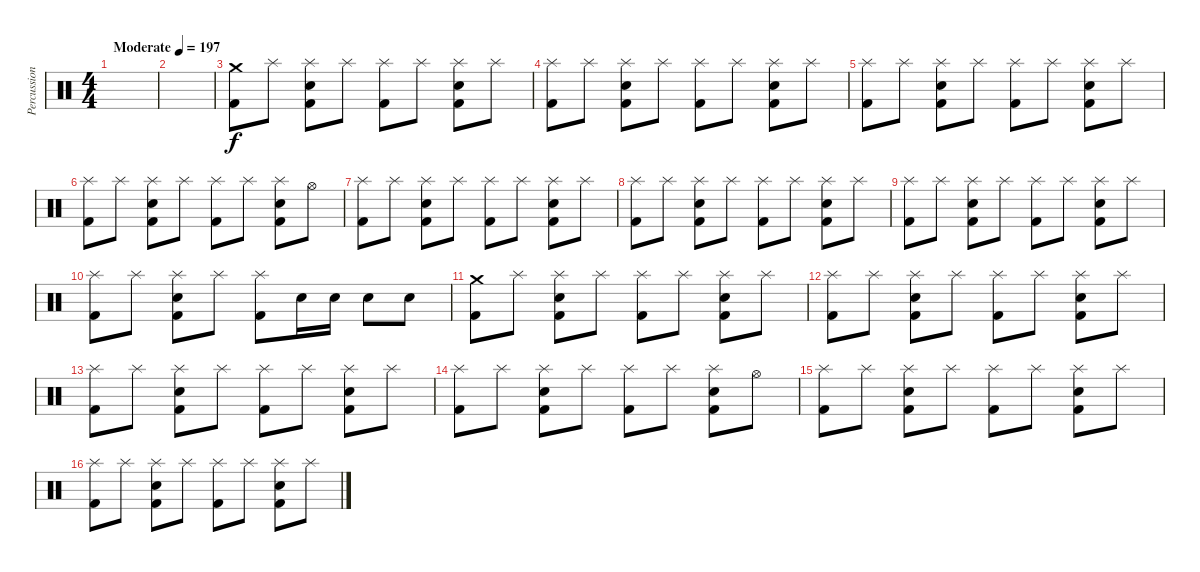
\track ("Percussion" "Percussion") {instrument percussion}
\staff {score}
\articulation defaults
\ts (4 4)
\tempo (197 "Moderate")
\clef neutral
\ks c
|
|
("Crash medium (hit)" "Kick (hit) 2").8 "Splash (hit)".8 ("Snare (hit) 2" "Splash (hit)" "Kick (hit) 2").8 "Splash (hit)".8 ("Splash (hit)" "Kick (hit) 2").8 "Splash (hit)".8 ("Snare (hit) 2" "Splash (hit)" "Kick (hit) 2").8 "Splash (hit)".8 |
("Splash (hit)" "Kick (hit) 2").8 "Splash (hit)".8 ("Snare (hit) 2" "Splash (hit)" "Kick (hit) 2").8 "Splash (hit)".8 ("Splash (hit)" "Kick (hit) 2").8 "Splash (hit)".8 ("Snare (hit) 2" "Splash (hit)" "Kick (hit) 2").8 "Splash (hit)".8 |
("Splash (hit)" "Kick (hit) 2").8 "Splash (hit)".8 ("Snare (hit) 2" "Splash (hit)" "Kick (hit) 2").8 "Splash (hit)".8 ("Splash (hit)" "Kick (hit) 2").8 "Splash (hit)".8 ("Snare (hit) 2" "Splash (hit)" "Kick (hit) 2").8 "Splash (hit)".8 |
("Splash (hit)" "Kick (hit) 2").8 "Splash (hit)".8 ("Snare (hit) 2" "Splash (hit)" "Kick (hit) 2").8 "Splash (hit)".8 ("Splash (hit)" "Kick (hit) 2").8 "Splash (hit)".8 ("Snare (hit) 2" "Splash (hit)" "Kick (hit) 2").8 "Hi-Hat (open)".8 |
("Splash (hit)" "Kick (hit) 2").8 "Splash (hit)".8 ("Snare (hit) 2" "Splash (hit)" "Kick (hit) 2").8 "Splash (hit)".8 ("Splash (hit)" "Kick (hit) 2").8 "Splash (hit)".8 ("Snare (hit) 2" "Splash (hit)" "Kick (hit) 2").8 "Splash (hit)".8 |
("Splash (hit)" "Kick (hit) 2").8 "Splash (hit)".8 ("Snare (hit) 2" "Splash (hit)" "Kick (hit) 2").8 "Splash (hit)".8 ("Splash (hit)" "Kick (hit) 2").8 "Splash (hit)".8 ("Snare (hit) 2" "Splash (hit)" "Kick (hit) 2").8 "Splash (hit)".8 |
("Splash (hit)" "Kick (hit) 2").8 "Splash (hit)".8 ("Snare (hit) 2" "Splash (hit)" "Kick (hit) 2").8 "Splash (hit)".8 ("Splash (hit)" "Kick (hit) 2").8 "Splash (hit)".8 ("Snare (hit) 2" "Splash (hit)" "Kick (hit) 2").8 "Splash (hit)".8 |
("Splash (hit)" "Kick (hit) 2").8 "Splash (hit)".8 ("Snare (hit) 2" "Splash (hit)" "Kick (hit) 2").8 "Splash (hit)".8 ("Splash (hit)" "Kick (hit) 2").8 "Snare (hit) 2".16 "Snare (hit) 2".16 "Snare (hit) 2".8 "Snare (hit) 2".8 |
("Crash medium (hit)" "Kick (hit) 2").8 "Splash (hit)".8 ("Snare (hit) 2" "Splash (hit)" "Kick (hit) 2").8 "Splash (hit)".8 ("Splash (hit)" "Kick (hit) 2").8 "Splash (hit)".8 ("Snare (hit) 2" "Splash (hit)" "Kick (hit) 2").8 "Splash (hit)".8 |
("Splash (hit)" "Kick (hit) 2").8 "Splash (hit)".8 ("Snare (hit) 2" "Splash (hit)" "Kick (hit) 2").8 "Splash (hit)".8 ("Splash (hit)" "Kick (hit) 2").8 "Splash (hit)".8 ("Snare (hit) 2" "Splash (hit)" "Kick (hit) 2").8 "Splash (hit)".8 |
("Splash (hit)" "Kick (hit) 2").8 "Splash (hit)".8 ("Snare (hit) 2" "Splash (hit)" "Kick (hit) 2").8 "Splash (hit)".8 ("Splash (hit)" "Kick (hit) 2").8 "Splash (hit)".8 ("Snare (hit) 2" "Splash (hit)" "Kick (hit) 2").8 "Splash (hit)".8 |
("Splash (hit)" "Kick (hit) 2").8 "Splash (hit)".8 ("Snare (hit) 2" "Splash (hit)" "Kick (hit) 2").8 "Splash (hit)".8 ("Splash (hit)" "Kick (hit) 2").8 "Splash (hit)".8 ("Snare (hit) 2" "Splash (hit)" "Kick (hit) 2").8 "Hi-Hat (open)".8 |
("Splash (hit)" "Kick (hit) 2").8 "Splash (hit)".8 ("Snare (hit) 2" "Splash (hit)" "Kick (hit) 2").8 "Splash (hit)".8 ("Splash (hit)" "Kick (hit) 2").8 "Splash (hit)".8 ("Snare (hit) 2" "Splash (hit)" "Kick (hit) 2").8 "Splash (hit)".8 |
("Splash (hit)" "Kick (hit) 2").8 "Splash (hit)".8 ("Snare (hit) 2" "Splash (hit)" "Kick (hit) 2").8 "Splash (hit)".8 ("Splash (hit)" "Kick (hit) 2").8 "Splash (hit)".8 ("Snare (hit) 2" "Splash (hit)" "Kick (hit) 2").8 "Splash (hit)".8
